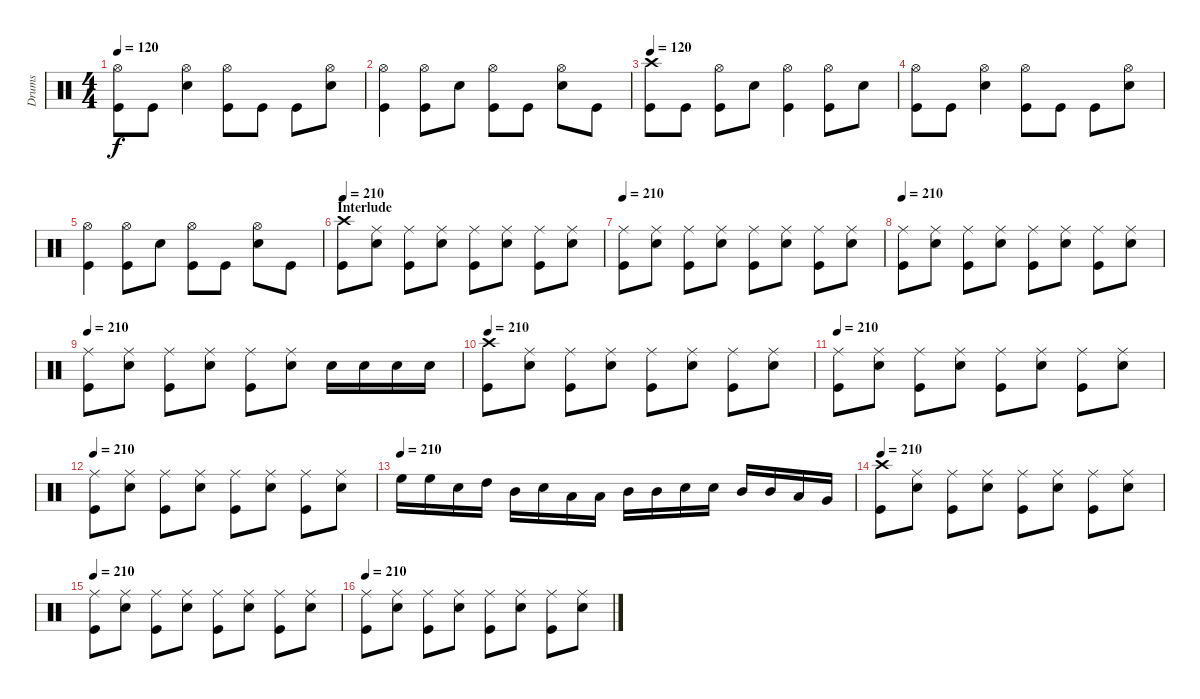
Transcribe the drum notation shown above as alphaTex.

\track ("Drums" "Drums") {instrument percussion}
\staff {score}
\articulation defaults
\ts (4 4)
\tempo 120
\clef neutral
\ks c
("Hi-Hat (open)" "Kick (hit)").8{dy f} "Kick (hit)".8 ("Hi-Hat (open)" "Snare (hit) 2").4 ("Hi-Hat (open)" "Kick (hit)").8 "Kick (hit)".8 "Kick (hit)".8 ("Hi-Hat (open)" "Snare (hit) 2").8 |
("Hi-Hat (open)" "Kick (hit)").4 ("Hi-Hat (open)" "Kick (hit)").8 "Snare (hit) 2".8 ("Hi-Hat (open)" "Kick (hit)").8 "Kick (hit)".8 ("Hi-Hat (open)" "Snare (hit) 2").8 "Kick (hit)".8 |
\tempo 120
("Crash high (hit)" "Kick (hit)").8 "Kick (hit)".8 ("Hi-Hat (open)" "Kick (hit)").8 "Snare (hit) 2".8 ("Hi-Hat (open)" "Kick (hit)").4 ("Hi-Hat (open)" "Kick (hit)").8 "Snare (hit) 2".8 |
("Hi-Hat (open)" "Kick (hit)").8 "Kick (hit)".8 ("Hi-Hat (open)" "Snare (hit) 2").4 ("Hi-Hat (open)" "Kick (hit)").8 "Kick (hit)".8 "Kick (hit)".8 ("Hi-Hat (open)" "Snare (hit) 2").8 |
("Hi-Hat (open)" "Kick (hit)").4 ("Hi-Hat (open)" "Kick (hit)").8 "Snare (hit) 2".8 ("Hi-Hat (open)" "Kick (hit)").8 "Kick (hit)".8 ("Hi-Hat (open)" "Snare (hit) 2").8 "Kick (hit)".8 |
\section ("" "Interlude")
\tempo 210
("Crash high (hit)" "Kick (hit)").8 ("Ride (middle)" "Snare (hit) 2").8 ("Ride (middle)" "Kick (hit)").8 ("Ride (middle)" "Snare (hit) 2").8 ("Ride (middle)" "Kick (hit)").8 ("Ride (middle)" "Snare (hit) 2").8 ("Ride (middle)" "Kick (hit)").8 ("Ride (middle)" "Snare (hit) 2").8 |
\tempo 210
("Ride (middle)" "Kick (hit)").8 ("Ride (middle)" "Snare (hit) 2").8 ("Ride (middle)" "Kick (hit)").8 ("Ride (middle)" "Snare (hit) 2").8 ("Ride (middle)" "Kick (hit)").8 ("Ride (middle)" "Snare (hit) 2").8 ("Ride (middle)" "Kick (hit)").8 ("Ride (middle)" "Snare (hit) 2").8 |
\tempo 210
("Ride (middle)" "Kick (hit)").8 ("Ride (middle)" "Snare (hit) 2").8 ("Ride (middle)" "Kick (hit)").8 ("Ride (middle)" "Snare (hit) 2").8 ("Ride (middle)" "Kick (hit)").8 ("Ride (middle)" "Snare (hit) 2").8 ("Ride (middle)" "Kick (hit)").8 ("Ride (middle)" "Snare (hit) 2").8 |
\tempo 210
("Ride (middle)" "Kick (hit)").8 ("Ride (middle)" "Snare (hit) 2").8 ("Ride (middle)" "Kick (hit)").8 ("Ride (middle)" "Snare (hit) 2").8 ("Ride (middle)" "Kick (hit)").8 ("Ride (middle)" "Snare (hit) 2").8 "Snare (hit) 2".16 "Snare (hit) 2".16 "Snare (hit) 2".16 "Snare (hit) 2".16 |
\tempo 210
("Crash high (hit)" "Kick (hit)").8 ("Ride (middle)" "Snare (hit) 2").8 ("Ride (middle)" "Kick (hit)").8 ("Ride (middle)" "Snare (hit) 2").8 ("Ride (middle)" "Kick (hit)").8 ("Ride (middle)" "Snare (hit) 2").8 ("Ride (middle)" "Kick (hit)").8 ("Ride (middle)" "Snare (hit) 2").8 |
\tempo 210
("Ride (middle)" "Kick (hit)").8 ("Ride (middle)" "Snare (hit) 2").8 ("Ride (middle)" "Kick (hit)").8 ("Ride (middle)" "Snare (hit) 2").8 ("Ride (middle)" "Kick (hit)").8 ("Ride (middle)" "Snare (hit) 2").8 ("Ride (middle)" "Kick (hit)").8 ("Ride (middle)" "Snare (hit) 2").8 |
\tempo 210
("Ride (middle)" "Kick (hit)").8 ("Ride (middle)" "Snare (hit) 2").8 ("Ride (middle)" "Kick (hit)").8 ("Ride (middle)" "Snare (hit) 2").8 ("Ride (middle)" "Kick (hit)").8 ("Ride (middle)" "Snare (hit) 2").8 ("Ride (middle)" "Kick (hit)").8 ("Ride (middle)" "Snare (hit) 2").8 |
\tempo (210)
"High Floor Tom (hit)".16 "High Floor Tom (hit)".16 "Snare (hit) 2".16 "High Tom (hit)".16 "Mid Tom (hit)".16 "Snare (hit) 2".16 "Low Tom (hit)".16 "Low Tom (hit)".16 "Mid Tom (hit)".16 "Mid Tom (hit)".16 "Snare (hit) 2".16 "Snare (hit) 2".16 "Mid Tom (hit)".16 "Mid Tom (hit)".16 "Low Tom (hit)".16 "Very Low Tom (hit)".16 |
\tempo 210
("Crash high (hit)" "Kick (hit)").8 ("Ride (middle)" "Snare (hit) 2").8 ("Ride (middle)" "Kick (hit)").8 ("Ride (middle)" "Snare (hit) 2").8 ("Ride (middle)" "Kick (hit)").8 ("Ride (middle)" "Snare (hit) 2").8 ("Ride (middle)" "Kick (hit)").8 ("Ride (middle)" "Snare (hit) 2").8 |
\tempo 210
("Ride (middle)" "Kick (hit)").8 ("Ride (middle)" "Snare (hit) 2").8 ("Ride (middle)" "Kick (hit)").8 ("Ride (middle)" "Snare (hit) 2").8 ("Ride (middle)" "Kick (hit)").8 ("Ride (middle)" "Snare (hit) 2").8 ("Ride (middle)" "Kick (hit)").8 ("Ride (middle)" "Snare (hit) 2").8 |
\tempo 210
("Ride (middle)" "Kick (hit)").8 ("Ride (middle)" "Snare (hit) 2").8 ("Ride (middle)" "Kick (hit)").8 ("Ride (middle)" "Snare (hit) 2").8 ("Ride (middle)" "Kick (hit)").8 ("Ride (middle)" "Snare (hit) 2").8 ("Ride (middle)" "Kick (hit)").8 ("Ride (middle)" "Snare (hit) 2").8
